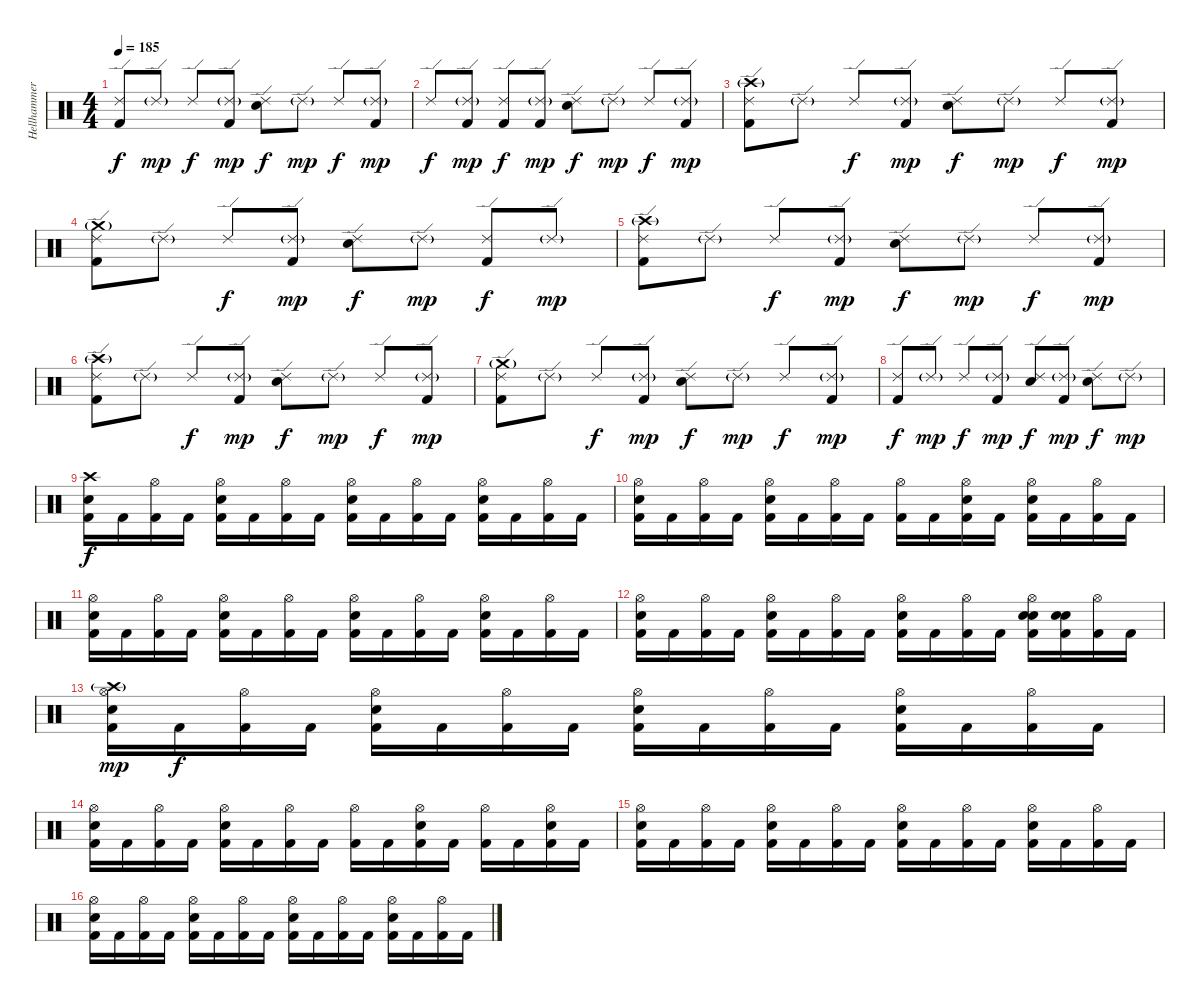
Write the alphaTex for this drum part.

\track ("Hellhammer" "Hellhammer") {instrument percussion}
\staff {score}
\articulation defaults
\ts (4 4)
\tempo 185
\clef neutral
\ks c
("Kick (hit) 2" "Ride (edge) 2").8{dy f} "Ride (edge) 2"{g}.8{dy mp} "Ride (edge) 2".8{dy f} ("Kick (hit) 2" "Ride (edge) 2"{g}).8{dy mp} ("Electric Snare (hit)" "Ride (edge) 2").8{dy f} "Ride (edge) 2"{g}.8{dy mp} "Ride (edge) 2".8{dy f} ("Kick (hit) 2" "Ride (edge) 2"{g}).8{dy mp} |
"Ride (edge) 2".8{dy f} ("Kick (hit) 2" "Ride (edge) 2"{g}).8{dy mp} ("Kick (hit) 2" "Ride (edge) 2").8{dy f} ("Kick (hit) 2" "Ride (edge) 2"{g}).8{dy mp} ("Electric Snare (hit)" "Ride (edge) 2").8{dy f} "Ride (edge) 2"{g}.8{dy mp} "Ride (edge) 2".8{dy f} ("Kick (hit) 2" "Ride (edge) 2"{g}).8{dy mp} |
("Kick (hit) 2" "Ride (edge) 2" "Crash high (hit)"{g}).8 "Ride (edge) 2"{g}.8 "Ride (edge) 2".8{dy f} ("Kick (hit) 2" "Ride (edge) 2"{g}).8{dy mp} ("Electric Snare (hit)" "Ride (edge) 2").8{dy f} "Ride (edge) 2"{g}.8{dy mp} "Ride (edge) 2".8{dy f} ("Kick (hit) 2" "Ride (edge) 2"{g}).8{dy mp} |
("Kick (hit) 2" "Ride (edge) 2" "Crash medium (hit)"{g}).8 "Ride (edge) 2"{g}.8 "Ride (edge) 2".8{dy f} ("Kick (hit) 2" "Ride (edge) 2"{g}).8{dy mp} ("Electric Snare (hit)" "Ride (edge) 2").8{dy f} "Ride (edge) 2"{g}.8{dy mp} ("Kick (hit) 2" "Ride (edge) 2").8{dy f} "Ride (edge) 2"{g}.8{dy mp} |
("Kick (hit) 2" "Ride (edge) 2" "Crash high (hit)"{g}).8 "Ride (edge) 2"{g}.8 "Ride (edge) 2".8{dy f} ("Kick (hit) 2" "Ride (edge) 2"{g}).8{dy mp} ("Electric Snare (hit)" "Ride (edge) 2").8{dy f} "Ride (edge) 2"{g}.8{dy mp} "Ride (edge) 2".8{dy f} ("Kick (hit) 2" "Ride (edge) 2"{g}).8{dy mp} |
("Kick (hit) 2" "Ride (edge) 2" "Crash high (hit)"{g}).8 "Ride (edge) 2"{g}.8 "Ride (edge) 2".8{dy f} ("Kick (hit) 2" "Ride (edge) 2"{g}).8{dy mp} ("Electric Snare (hit)" "Ride (edge) 2").8{dy f} "Ride (edge) 2"{g}.8{dy mp} "Ride (edge) 2".8{dy f} ("Kick (hit) 2" "Ride (edge) 2"{g}).8{dy mp} |
("Kick (hit) 2" "Ride (edge) 2" "Crash medium (hit)"{g}).8 "Ride (edge) 2"{g}.8 "Ride (edge) 2".8{dy f} ("Kick (hit) 2" "Ride (edge) 2"{g}).8{dy mp} ("Electric Snare (hit)" "Ride (edge) 2").8{dy f} "Ride (edge) 2"{g}.8{dy mp} "Ride (edge) 2".8{dy f} ("Kick (hit) 2" "Ride (edge) 2"{g}).8{dy mp} |
("Kick (hit) 2" "Ride (edge) 2").8{dy f} "Ride (edge) 2"{g}.8{dy mp} "Ride (edge) 2".8{dy f} ("Kick (hit) 2" "Ride (edge) 2"{g}).8{dy mp} ("Electric Snare (hit)" "Ride (edge) 2").8{dy f} ("Kick (hit) 2" "Ride (edge) 2"{g}).8{dy mp} ("Electric Snare (hit)" "Ride (edge) 2").8{dy f} "Ride (edge) 2"{g}.8{dy mp} |
("Kick (hit) 2" "Electric Snare (hit)" "Crash high (hit)").16{dy f} "Kick (hit) 2".16 ("Kick (hit) 2" "Hi-Hat (open)").16 "Kick (hit) 2".16 ("Kick (hit) 2" "Electric Snare (hit)" "Hi-Hat (open)").16 "Kick (hit) 2".16 ("Kick (hit) 2" "Hi-Hat (open)").16 "Kick (hit) 2".16 ("Kick (hit) 2" "Electric Snare (hit)" "Hi-Hat (open)").16 "Kick (hit) 2".16 ("Kick (hit) 2" "Hi-Hat (open)").16 "Kick (hit) 2".16 ("Kick (hit) 2" "Electric Snare (hit)" "Hi-Hat (open)").16 "Kick (hit) 2".16 ("Kick (hit) 2" "Hi-Hat (open)").16 "Kick (hit) 2".16 |
("Kick (hit) 2" "Electric Snare (hit)" "Hi-Hat (open)").16 "Kick (hit) 2".16 ("Kick (hit) 2" "Hi-Hat (open)").16 "Kick (hit) 2".16 ("Kick (hit) 2" "Electric Snare (hit)" "Hi-Hat (open)").16 "Kick (hit) 2".16 ("Kick (hit) 2" "Hi-Hat (open)").16 "Kick (hit) 2".16 ("Kick (hit) 2" "Hi-Hat (open)").16 "Kick (hit) 2".16 ("Kick (hit) 2" "Electric Snare (hit)" "Hi-Hat (open)").16 "Kick (hit) 2".16 ("Kick (hit) 2" "Electric Snare (hit)" "Hi-Hat (open)").16 "Kick (hit) 2".16 ("Kick (hit) 2" "Hi-Hat (open)").16 "Kick (hit) 2".16 |
("Kick (hit) 2" "Electric Snare (hit)" "Hi-Hat (open)").16 "Kick (hit) 2".16 ("Kick (hit) 2" "Hi-Hat (open)").16 "Kick (hit) 2".16 ("Kick (hit) 2" "Electric Snare (hit)" "Hi-Hat (open)").16 "Kick (hit) 2".16 ("Kick (hit) 2" "Hi-Hat (open)").16 "Kick (hit) 2".16 ("Kick (hit) 2" "Electric Snare (hit)" "Hi-Hat (open)").16 "Kick (hit) 2".16 ("Kick (hit) 2" "Hi-Hat (open)").16 "Kick (hit) 2".16 ("Kick (hit) 2" "Electric Snare (hit)" "Hi-Hat (open)").16 "Kick (hit) 2".16 ("Kick (hit) 2" "Hi-Hat (open)").16 "Kick (hit) 2".16 |
("Kick (hit) 2" "Electric Snare (hit)" "Hi-Hat (open)").16 "Kick (hit) 2".16 ("Kick (hit) 2" "Hi-Hat (open)").16 "Kick (hit) 2".16 ("Kick (hit) 2" "Electric Snare (hit)" "Hi-Hat (open)").16 "Kick (hit) 2".16 ("Kick (hit) 2" "Hi-Hat (open)").16 "Kick (hit) 2".16 ("Kick (hit) 2" "Electric Snare (hit)" "Hi-Hat (open)").16 "Kick (hit) 2".16 ("Kick (hit) 2" "Hi-Hat (open)").16 "Kick (hit) 2".16 ("Kick (hit) 2" "Electric Snare (hit)" "Hi-Hat (open)" "Electric Snare (hit)").16 ("Kick (hit) 2" "Electric Snare (hit)" "Electric Snare (hit)").16 ("Kick (hit) 2" "Hi-Hat (open)").16 "Kick (hit) 2".16 |
("Kick (hit) 2" "Electric Snare (hit)" "Hi-Hat (open)" "Crash high (hit)"{g}).16{dy mp} "Kick (hit) 2".16{dy f} ("Kick (hit) 2" "Hi-Hat (open)").16 "Kick (hit) 2".16 ("Kick (hit) 2" "Electric Snare (hit)" "Hi-Hat (open)").16 "Kick (hit) 2".16 ("Kick (hit) 2" "Hi-Hat (open)").16 "Kick (hit) 2".16 ("Kick (hit) 2" "Electric Snare (hit)" "Hi-Hat (open)").16 "Kick (hit) 2".16 ("Kick (hit) 2" "Hi-Hat (open)").16 "Kick (hit) 2".16 ("Kick (hit) 2" "Electric Snare (hit)" "Hi-Hat (open)").16 "Kick (hit) 2".16 ("Kick (hit) 2" "Hi-Hat (open)").16 "Kick (hit) 2".16 |
("Kick (hit) 2" "Electric Snare (hit)" "Hi-Hat (open)").16 "Kick (hit) 2".16 ("Kick (hit) 2" "Hi-Hat (open)").16 "Kick (hit) 2".16 ("Kick (hit) 2" "Electric Snare (hit)" "Hi-Hat (open)").16 "Kick (hit) 2".16 ("Kick (hit) 2" "Hi-Hat (open)").16 "Kick (hit) 2".16 ("Kick (hit) 2" "Hi-Hat (open)").16 "Kick (hit) 2".16 ("Kick (hit) 2" "Electric Snare (hit)" "Hi-Hat (open)").16 "Kick (hit) 2".16 ("Kick (hit) 2" "Hi-Hat (open)").16 "Kick (hit) 2".16 ("Kick (hit) 2" "Electric Snare (hit)" "Hi-Hat (open)").16 "Kick (hit) 2".16 |
("Kick (hit) 2" "Electric Snare (hit)" "Hi-Hat (open)").16 "Kick (hit) 2".16 ("Kick (hit) 2" "Hi-Hat (open)").16 "Kick (hit) 2".16 ("Kick (hit) 2" "Electric Snare (hit)" "Hi-Hat (open)").16 "Kick (hit) 2".16 ("Kick (hit) 2" "Hi-Hat (open)").16 "Kick (hit) 2".16 ("Kick (hit) 2" "Electric Snare (hit)" "Hi-Hat (open)").16 "Kick (hit) 2".16 ("Kick (hit) 2" "Hi-Hat (open)").16 "Kick (hit) 2".16 ("Kick (hit) 2" "Electric Snare (hit)" "Hi-Hat (open)").16 "Kick (hit) 2".16 ("Kick (hit) 2" "Hi-Hat (open)").16 "Kick (hit) 2".16 |
("Kick (hit) 2" "Electric Snare (hit)" "Hi-Hat (open)").16 "Kick (hit) 2".16 ("Kick (hit) 2" "Hi-Hat (open)").16 "Kick (hit) 2".16 ("Kick (hit) 2" "Electric Snare (hit)" "Hi-Hat (open)").16 "Kick (hit) 2".16 ("Kick (hit) 2" "Hi-Hat (open)").16 "Kick (hit) 2".16 ("Kick (hit) 2" "Electric Snare (hit)" "Hi-Hat (open)").16 "Kick (hit) 2".16 ("Kick (hit) 2" "Hi-Hat (open)").16 "Kick (hit) 2".16 ("Kick (hit) 2" "Electric Snare (hit)" "Hi-Hat (open)").16 "Kick (hit) 2".16 ("Kick (hit) 2" "Hi-Hat (open)").16 "Kick (hit) 2".16
